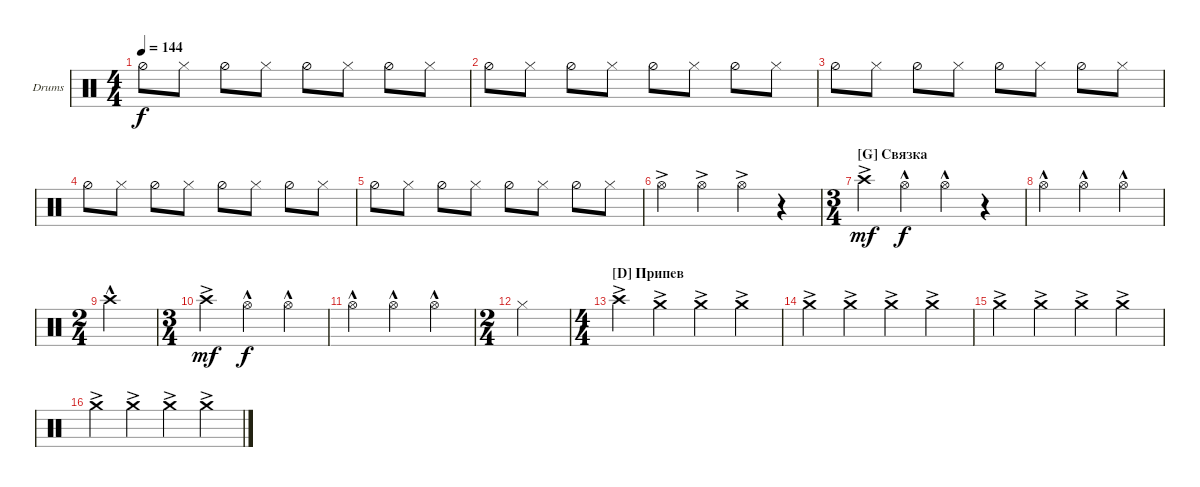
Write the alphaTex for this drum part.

\defaultSystemsLayout 4
\bracketExtendMode groupsimilarinstruments
\firstSystemTrackNameOrientation horizontal
\otherSystemsTrackNameOrientation horizontal
\track ("Cymbals" "Drums") {instrument percussion}
\staff {score}
\articulation defaults
\ts (4 4)
\tempo 144
\clef neutral
\ks c "Hi-Hat (half)".8{dy f} "Hi-Hat (closed)".8 "Hi-Hat (half)".8 "Hi-Hat (closed)".8 "Hi-Hat (half)".8 "Hi-Hat (closed)".8 "Hi-Hat (half)".8 "Hi-Hat (closed)".8
|
"Hi-Hat (half)".8 "Hi-Hat (closed)".8 "Hi-Hat (half)".8 "Hi-Hat (closed)".8 "Hi-Hat (half)".8 "Hi-Hat (closed)".8 "Hi-Hat (half)".8 "Hi-Hat (closed)".8 |
"Hi-Hat (half)".8 "Hi-Hat (closed)".8 "Hi-Hat (half)".8 "Hi-Hat (closed)".8 "Hi-Hat (half)".8 "Hi-Hat (closed)".8 "Hi-Hat (half)".8 "Hi-Hat (closed)".8 |
"Hi-Hat (half)".8 "Hi-Hat (closed)".8 "Hi-Hat (half)".8 "Hi-Hat (closed)".8 "Hi-Hat (half)".8 "Hi-Hat (closed)".8 "Hi-Hat (half)".8 "Hi-Hat (closed)".8 |
"Hi-Hat (half)".8 "Hi-Hat (closed)".8 "Hi-Hat (half)".8 "Hi-Hat (closed)".8 "Hi-Hat (half)".8 "Hi-Hat (closed)".8 "Hi-Hat (half)".8 "Hi-Hat (closed)".8 |
"Hi-Hat (open)"{ac}.4 "Hi-Hat (open)"{ac}.4 "Hi-Hat (open)"{ac}.4 r.4 |
\ts (3 4)
\section ("G" "Связка")
"Crash high (hit)"{ac}.4{dy mf} "Hi-Hat (open)"{hac}.4{dy f} "Hi-Hat (open)"{hac}.4 r.4 |
"Hi-Hat (open)"{hac}.4 "Hi-Hat (open)"{hac}.4 "Hi-Hat (open)"{hac}.4 |
\ts (2 4)
"Crash high (hit)"{hac}.2 |
\ts (3 4)
"Crash high (hit)"{ac}.4{dy mf} "Hi-Hat (open)"{hac}.4{dy f} "Hi-Hat (open)"{hac}.4 |
"Hi-Hat (open)"{hac}.4 "Hi-Hat (open)"{hac}.4 "Hi-Hat (open)"{hac}.4 |
\ts (2 4)
"Hi-Hat (closed)".2 |
\ts (4 4)
\section ("D" "Припев")
"Crash high (hit)"{ac}.4 "Crash medium (hit)"{ac}.4 "Crash medium (hit)"{ac}.4 "Crash medium (hit)"{ac}.4 |
"Crash medium (hit)"{ac}.4 "Crash medium (hit)"{ac}.4 "Crash medium (hit)"{ac}.4 "Crash medium (hit)"{ac}.4 |
"Crash medium (hit)"{ac}.4 "Crash medium (hit)"{ac}.4 "Crash medium (hit)"{ac}.4 "Crash medium (hit)"{ac}.4 |
"Crash medium (hit)"{ac}.4 "Crash medium (hit)"{ac}.4 "Crash medium (hit)"{ac}.4 "Crash medium (hit)"{ac}.4
